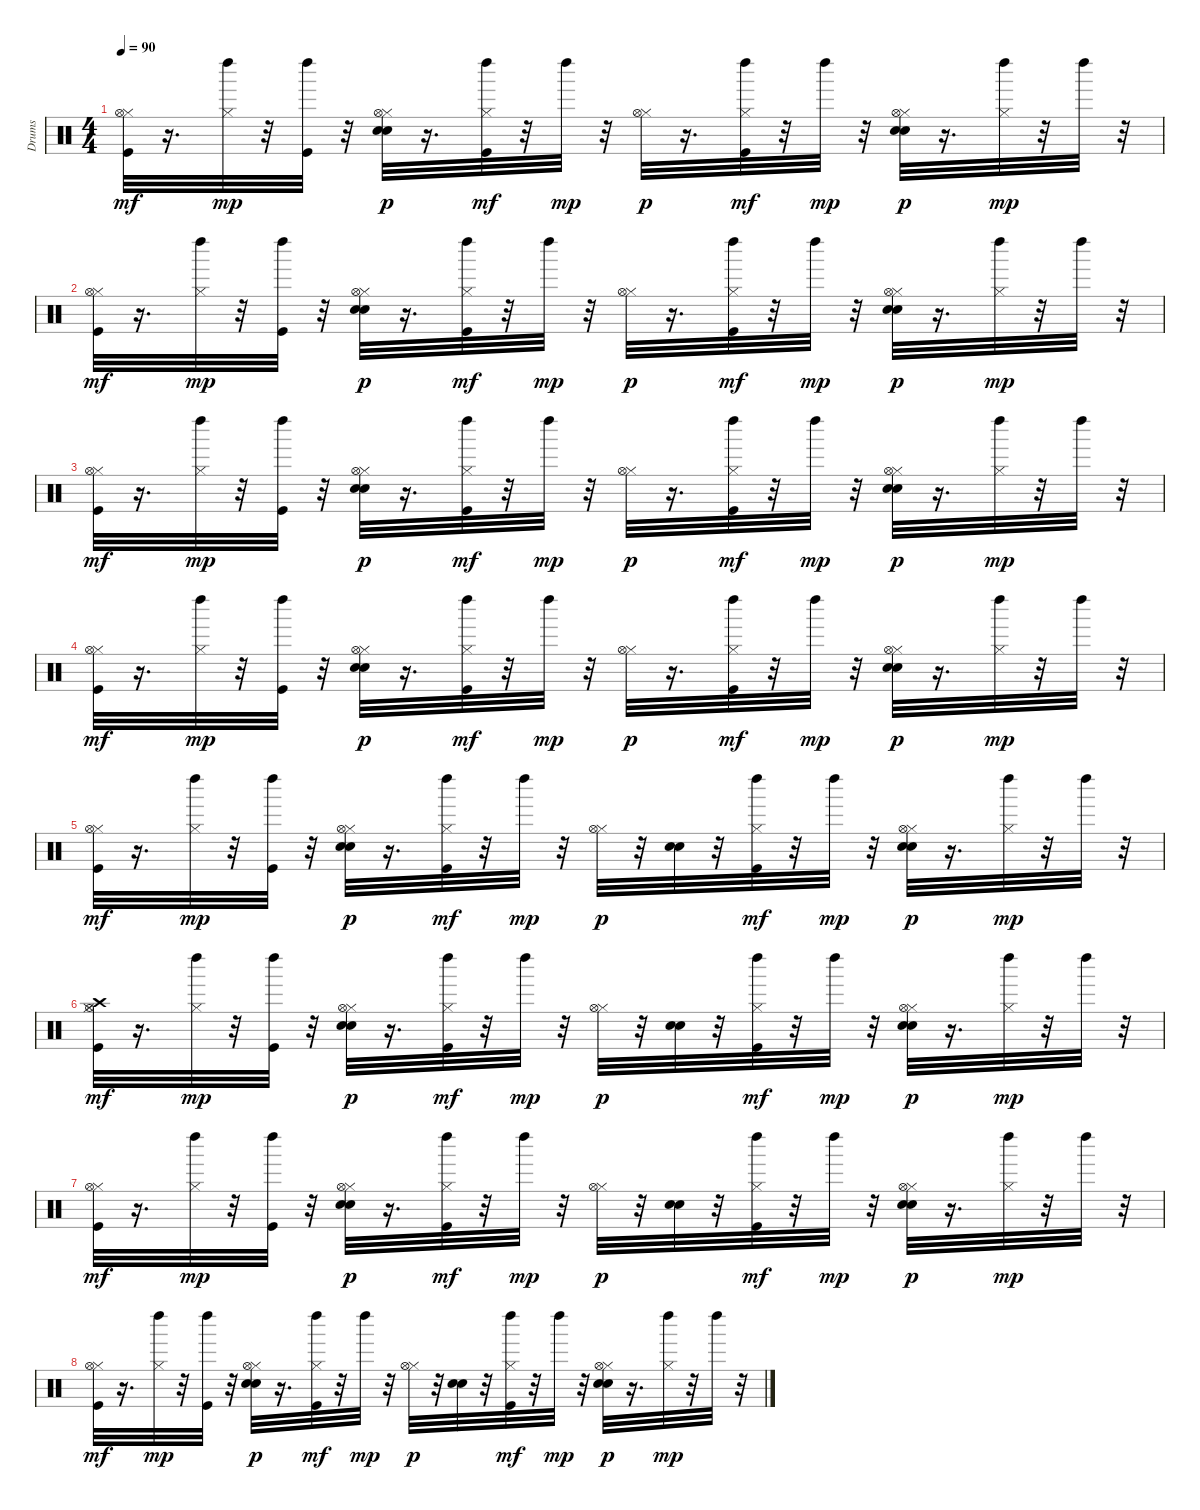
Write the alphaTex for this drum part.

\track ("Drums" "Drums") {instrument percussion}
\staff {score}
\articulation defaults
\ts (4 4)
\tempo 90
\clef neutral
\ks c
("Hi-Hat (closed)" "Hi-Hat (open)" "Kick (hit)").32{dy mf} r.16{d} ("Hi-Hat (closed)" "Left Maraca (hit)").32{dy mp} r.32 ("Kick (hit)" "Left Maraca (hit)").32 r.32 ("Snare (hit) 2" "Electric Snare (hit)" "Hi-Hat (closed)" "Hi-Hat (open)").32{dy p} r.16{d} ("Hi-Hat (closed)" "Left Maraca (hit)" "Kick (hit)").32{dy mf} r.32 "Left Maraca (hit)".32{dy mp} r.32 ("Hi-Hat (closed)" "Hi-Hat (open)").32{dy p} r.16{d} ("Hi-Hat (closed)" "Left Maraca (hit)" "Kick (hit)").32{dy mf} r.32 "Left Maraca (hit)".32{dy mp} r.32 ("Snare (hit) 2" "Electric Snare (hit)" "Hi-Hat (closed)" "Hi-Hat (open)").32{dy p} r.16{d} ("Hi-Hat (closed)" "Left Maraca (hit)").32{dy mp} r.32 "Left Maraca (hit)".32 r.32 |
("Hi-Hat (closed)" "Hi-Hat (open)" "Kick (hit)").32{dy mf} r.16{d} ("Hi-Hat (closed)" "Left Maraca (hit)").32{dy mp} r.32 ("Kick (hit)" "Left Maraca (hit)").32 r.32 ("Snare (hit) 2" "Electric Snare (hit)" "Hi-Hat (closed)" "Hi-Hat (open)").32{dy p} r.16{d} ("Hi-Hat (closed)" "Left Maraca (hit)" "Kick (hit)").32{dy mf} r.32 "Left Maraca (hit)".32{dy mp} r.32 ("Hi-Hat (closed)" "Hi-Hat (open)").32{dy p} r.16{d} ("Hi-Hat (closed)" "Left Maraca (hit)" "Kick (hit)").32{dy mf} r.32 "Left Maraca (hit)".32{dy mp} r.32 ("Snare (hit) 2" "Electric Snare (hit)" "Hi-Hat (closed)" "Hi-Hat (open)").32{dy p} r.16{d} ("Hi-Hat (closed)" "Left Maraca (hit)").32{dy mp} r.32 "Left Maraca (hit)".32 r.32 |
("Hi-Hat (closed)" "Hi-Hat (open)" "Kick (hit)").32{dy mf} r.16{d} ("Hi-Hat (closed)" "Left Maraca (hit)").32{dy mp} r.32 ("Kick (hit)" "Left Maraca (hit)").32 r.32 ("Snare (hit) 2" "Electric Snare (hit)" "Hi-Hat (closed)" "Hi-Hat (open)").32{dy p} r.16{d} ("Hi-Hat (closed)" "Left Maraca (hit)" "Kick (hit)").32{dy mf} r.32 "Left Maraca (hit)".32{dy mp} r.32 ("Hi-Hat (closed)" "Hi-Hat (open)").32{dy p} r.16{d} ("Hi-Hat (closed)" "Left Maraca (hit)" "Kick (hit)").32{dy mf} r.32 "Left Maraca (hit)".32{dy mp} r.32 ("Snare (hit) 2" "Electric Snare (hit)" "Hi-Hat (closed)" "Hi-Hat (open)").32{dy p} r.16{d} ("Hi-Hat (closed)" "Left Maraca (hit)").32{dy mp} r.32 "Left Maraca (hit)".32 r.32 |
("Hi-Hat (closed)" "Hi-Hat (open)" "Kick (hit)").32{dy mf} r.16{d} ("Hi-Hat (closed)" "Left Maraca (hit)").32{dy mp} r.32 ("Kick (hit)" "Left Maraca (hit)").32 r.32 ("Snare (hit) 2" "Electric Snare (hit)" "Hi-Hat (closed)" "Hi-Hat (open)").32{dy p} r.16{d} ("Hi-Hat (closed)" "Left Maraca (hit)" "Kick (hit)").32{dy mf} r.32 "Left Maraca (hit)".32{dy mp} r.32 ("Hi-Hat (closed)" "Hi-Hat (open)").32{dy p} r.16{d} ("Hi-Hat (closed)" "Left Maraca (hit)" "Kick (hit)").32{dy mf} r.32 "Left Maraca (hit)".32{dy mp} r.32 ("Snare (hit) 2" "Electric Snare (hit)" "Hi-Hat (closed)" "Hi-Hat (open)").32{dy p} r.16{d} ("Hi-Hat (closed)" "Left Maraca (hit)").32{dy mp} r.32 "Left Maraca (hit)".32 r.32 |
("Hi-Hat (closed)" "Hi-Hat (open)" "Kick (hit)").32{dy mf} r.16{d} ("Hi-Hat (closed)" "Left Maraca (hit)").32{dy mp} r.32 ("Kick (hit)" "Left Maraca (hit)").32 r.32 ("Snare (hit) 2" "Electric Snare (hit)" "Hi-Hat (closed)" "Hi-Hat (open)").32{dy p} r.16{d} ("Hi-Hat (closed)" "Left Maraca (hit)" "Kick (hit)").32{dy mf} r.32 "Left Maraca (hit)".32{dy mp} r.32 ("Hi-Hat (closed)" "Hi-Hat (open)").32{dy p} r.32 ("Electric Snare (hit)" "Snare (hit) 2").32 r.32 ("Hi-Hat (closed)" "Left Maraca (hit)" "Kick (hit)").32{dy mf} r.32 "Left Maraca (hit)".32{dy mp} r.32 ("Snare (hit) 2" "Electric Snare (hit)" "Hi-Hat (closed)" "Hi-Hat (open)").32{dy p} r.16{d} ("Hi-Hat (closed)" "Left Maraca (hit)").32{dy mp} r.32 "Left Maraca (hit)".32 r.32 |
("Crash high (hit)" "Hi-Hat (closed)" "Hi-Hat (open)" "Kick (hit)").32{dy mf} r.16{d} ("Hi-Hat (closed)" "Left Maraca (hit)").32{dy mp} r.32 ("Kick (hit)" "Left Maraca (hit)").32 r.32 ("Snare (hit) 2" "Electric Snare (hit)" "Hi-Hat (closed)" "Hi-Hat (open)").32{dy p} r.16{d} ("Hi-Hat (closed)" "Left Maraca (hit)" "Kick (hit)").32{dy mf} r.32 "Left Maraca (hit)".32{dy mp} r.32 ("Hi-Hat (closed)" "Hi-Hat (open)").32{dy p} r.32 ("Electric Snare (hit)" "Snare (hit) 2").32 r.32 ("Hi-Hat (closed)" "Left Maraca (hit)" "Kick (hit)").32{dy mf} r.32 "Left Maraca (hit)".32{dy mp} r.32 ("Snare (hit) 2" "Electric Snare (hit)" "Hi-Hat (closed)" "Hi-Hat (open)").32{dy p} r.16{d} ("Hi-Hat (closed)" "Left Maraca (hit)").32{dy mp} r.32 "Left Maraca (hit)".32 r.32 |
("Hi-Hat (closed)" "Hi-Hat (open)" "Kick (hit)").32{dy mf} r.16{d} ("Hi-Hat (closed)" "Left Maraca (hit)").32{dy mp} r.32 ("Kick (hit)" "Left Maraca (hit)").32 r.32 ("Snare (hit) 2" "Electric Snare (hit)" "Hi-Hat (closed)" "Hi-Hat (open)").32{dy p} r.16{d} ("Hi-Hat (closed)" "Left Maraca (hit)" "Kick (hit)").32{dy mf} r.32 "Left Maraca (hit)".32{dy mp} r.32 ("Hi-Hat (closed)" "Hi-Hat (open)").32{dy p} r.32 ("Electric Snare (hit)" "Snare (hit) 2").32 r.32 ("Hi-Hat (closed)" "Left Maraca (hit)" "Kick (hit)").32{dy mf} r.32 "Left Maraca (hit)".32{dy mp} r.32 ("Snare (hit) 2" "Electric Snare (hit)" "Hi-Hat (closed)" "Hi-Hat (open)").32{dy p} r.16{d} ("Hi-Hat (closed)" "Left Maraca (hit)").32{dy mp} r.32 "Left Maraca (hit)".32 r.32 |
("Hi-Hat (closed)" "Hi-Hat (open)" "Kick (hit)").32{dy mf} r.16{d} ("Hi-Hat (closed)" "Left Maraca (hit)").32{dy mp} r.32 ("Kick (hit)" "Left Maraca (hit)").32 r.32 ("Snare (hit) 2" "Electric Snare (hit)" "Hi-Hat (closed)" "Hi-Hat (open)").32{dy p} r.16{d} ("Hi-Hat (closed)" "Left Maraca (hit)" "Kick (hit)").32{dy mf} r.32 "Left Maraca (hit)".32{dy mp} r.32 ("Hi-Hat (closed)" "Hi-Hat (open)").32{dy p} r.32 ("Electric Snare (hit)" "Snare (hit) 2").32 r.32 ("Hi-Hat (closed)" "Left Maraca (hit)" "Kick (hit)").32{dy mf} r.32 "Left Maraca (hit)".32{dy mp} r.32 ("Snare (hit) 2" "Electric Snare (hit)" "Hi-Hat (closed)" "Hi-Hat (open)").32{dy p} r.16{d} ("Hi-Hat (closed)" "Left Maraca (hit)").32{dy mp} r.32 "Left Maraca (hit)".32 r.32
